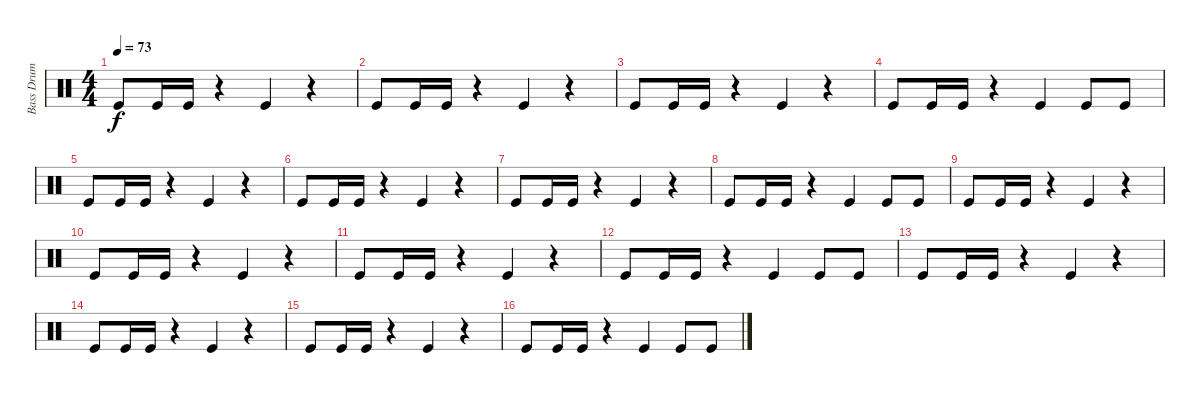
\track ("Bass Drum" "Bass Drum") {instrument percussion}
\staff {score}
\articulation defaults
\ts (4 4)
\tempo 73
\clef neutral
\ks c "Kick (hit)".8{dy f} "Kick (hit)".16 "Kick (hit)".16
r.4 "Kick (hit)".4 r.4 |
"Kick (hit)".8 "Kick (hit)".16 "Kick (hit)".16 r.4 "Kick (hit)".4 r.4 |
"Kick (hit)".8 "Kick (hit)".16 "Kick (hit)".16 r.4 "Kick (hit)".4 r.4 |
"Kick (hit)".8 "Kick (hit)".16 "Kick (hit)".16 r.4 "Kick (hit)".4 "Kick (hit)".8 "Kick (hit)".8 |
"Kick (hit)".8 "Kick (hit)".16 "Kick (hit)".16 r.4 "Kick (hit)".4 r.4 |
"Kick (hit)".8 "Kick (hit)".16 "Kick (hit)".16 r.4 "Kick (hit)".4 r.4 |
"Kick (hit)".8 "Kick (hit)".16 "Kick (hit)".16 r.4 "Kick (hit)".4 r.4 |
"Kick (hit)".8 "Kick (hit)".16 "Kick (hit)".16 r.4 "Kick (hit)".4 "Kick (hit)".8 "Kick (hit)".8 |
"Kick (hit)".8 "Kick (hit)".16 "Kick (hit)".16 r.4 "Kick (hit)".4 r.4 |
"Kick (hit)".8 "Kick (hit)".16 "Kick (hit)".16 r.4 "Kick (hit)".4 r.4 |
"Kick (hit)".8 "Kick (hit)".16 "Kick (hit)".16 r.4 "Kick (hit)".4 r.4 |
"Kick (hit)".8 "Kick (hit)".16 "Kick (hit)".16 r.4 "Kick (hit)".4 "Kick (hit)".8 "Kick (hit)".8 |
"Kick (hit)".8 "Kick (hit)".16 "Kick (hit)".16 r.4 "Kick (hit)".4 r.4 |
"Kick (hit)".8{volume 7} "Kick (hit)".16 "Kick (hit)".16 r.4 "Kick (hit)".4 r.4 |
"Kick (hit)".8 "Kick (hit)".16 "Kick (hit)".16 r.4 "Kick (hit)".4 r.4 |
"Kick (hit)".8 "Kick (hit)".16 "Kick (hit)".16 r.4 "Kick (hit)".4 "Kick (hit)".8 "Kick (hit)".8
